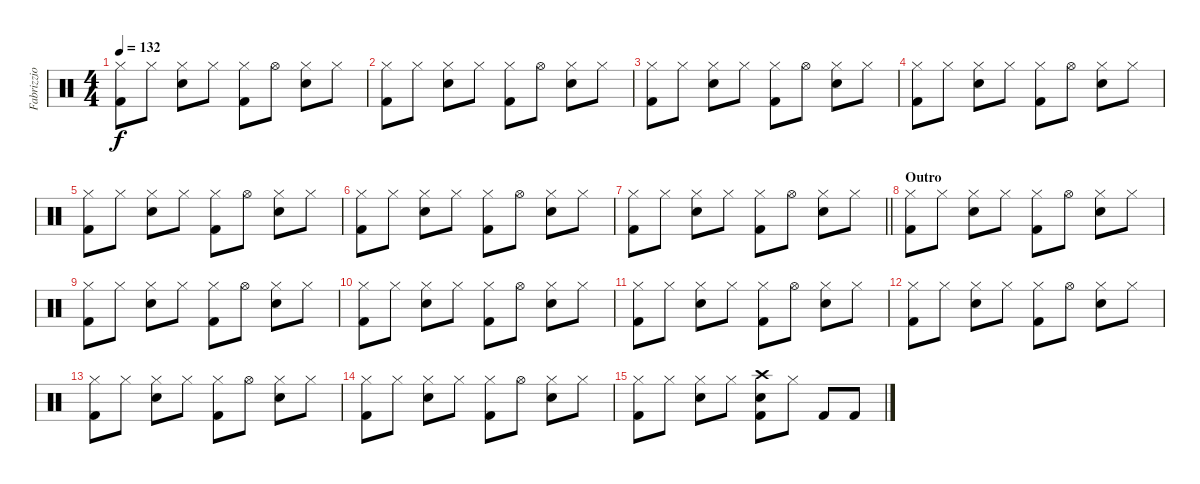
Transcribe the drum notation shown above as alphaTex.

\track ("Fabrizzio" "Fabrizzio") {instrument percussion}
\staff {score}
\articulation defaults
\ts (4 4)
\tempo 132
\clef neutral
\ks c
("Hi-Hat (closed)" "Kick (hit) 2").8{dy f} "Hi-Hat (closed)".8 ("Hi-Hat (closed)" "Snare (hit) 2").8 "Hi-Hat (closed)".8 ("Hi-Hat (closed)" "Kick (hit) 2").8 "Hi-Hat (open)".8 ("Hi-Hat (closed)" "Snare (hit) 2").8 "Hi-Hat (closed)".8 |
("Hi-Hat (closed)" "Kick (hit) 2").8 "Hi-Hat (closed)".8 ("Hi-Hat (closed)" "Snare (hit) 2").8 "Hi-Hat (closed)".8 ("Hi-Hat (closed)" "Kick (hit) 2").8 "Hi-Hat (open)".8 ("Hi-Hat (closed)" "Snare (hit) 2").8 "Hi-Hat (closed)".8 |
("Hi-Hat (closed)" "Kick (hit) 2").8 "Hi-Hat (closed)".8 ("Hi-Hat (closed)" "Snare (hit) 2").8 "Hi-Hat (closed)".8 ("Hi-Hat (closed)" "Kick (hit) 2").8 "Hi-Hat (open)".8 ("Hi-Hat (closed)" "Snare (hit) 2").8 "Hi-Hat (closed)".8 |
("Hi-Hat (closed)" "Kick (hit) 2").8 "Hi-Hat (closed)".8 ("Hi-Hat (closed)" "Snare (hit) 2").8 "Hi-Hat (closed)".8 ("Hi-Hat (closed)" "Kick (hit) 2").8 "Hi-Hat (open)".8 ("Hi-Hat (closed)" "Snare (hit) 2").8 "Hi-Hat (closed)".8 |
("Hi-Hat (closed)" "Kick (hit) 2").8 "Hi-Hat (closed)".8 ("Hi-Hat (closed)" "Snare (hit) 2").8 "Hi-Hat (closed)".8 ("Hi-Hat (closed)" "Kick (hit) 2").8 "Hi-Hat (open)".8 ("Hi-Hat (closed)" "Snare (hit) 2").8 "Hi-Hat (closed)".8 |
("Hi-Hat (closed)" "Kick (hit) 2").8 "Hi-Hat (closed)".8 ("Hi-Hat (closed)" "Snare (hit) 2").8 "Hi-Hat (closed)".8 ("Hi-Hat (closed)" "Kick (hit) 2").8 "Hi-Hat (open)".8 ("Hi-Hat (closed)" "Snare (hit) 2").8 "Hi-Hat (closed)".8 |
\barLineRight lightlight
("Hi-Hat (closed)" "Kick (hit) 2").8 "Hi-Hat (closed)".8 ("Hi-Hat (closed)" "Snare (hit) 2").8 "Hi-Hat (closed)".8 ("Hi-Hat (closed)" "Kick (hit) 2").8 "Hi-Hat (open)".8 ("Hi-Hat (closed)" "Snare (hit) 2").8 "Hi-Hat (closed)".8 |
\section ("" "Outro")
("Hi-Hat (closed)" "Kick (hit) 2").8 "Hi-Hat (closed)".8 ("Hi-Hat (closed)" "Snare (hit) 2").8 "Hi-Hat (closed)".8 ("Hi-Hat (closed)" "Kick (hit) 2").8 "Hi-Hat (open)".8 ("Hi-Hat (closed)" "Snare (hit) 2").8 "Hi-Hat (closed)".8 |
("Hi-Hat (closed)" "Kick (hit) 2").8 "Hi-Hat (closed)".8 ("Hi-Hat (closed)" "Snare (hit) 2").8 "Hi-Hat (closed)".8 ("Hi-Hat (closed)" "Kick (hit) 2").8 "Hi-Hat (open)".8 ("Hi-Hat (closed)" "Snare (hit) 2").8 "Hi-Hat (closed)".8 |
("Hi-Hat (closed)" "Kick (hit) 2").8 "Hi-Hat (closed)".8 ("Hi-Hat (closed)" "Snare (hit) 2").8 "Hi-Hat (closed)".8 ("Hi-Hat (closed)" "Kick (hit) 2").8 "Hi-Hat (open)".8 ("Hi-Hat (closed)" "Snare (hit) 2").8 "Hi-Hat (closed)".8 |
("Hi-Hat (closed)" "Kick (hit) 2").8 "Hi-Hat (closed)".8 ("Hi-Hat (closed)" "Snare (hit) 2").8 "Hi-Hat (closed)".8 ("Hi-Hat (closed)" "Kick (hit) 2").8 "Hi-Hat (open)".8 ("Hi-Hat (closed)" "Snare (hit) 2").8 "Hi-Hat (closed)".8 |
("Hi-Hat (closed)" "Kick (hit) 2").8 "Hi-Hat (closed)".8 ("Hi-Hat (closed)" "Snare (hit) 2").8 "Hi-Hat (closed)".8 ("Hi-Hat (closed)" "Kick (hit) 2").8 "Hi-Hat (open)".8 ("Hi-Hat (closed)" "Snare (hit) 2").8 "Hi-Hat (closed)".8 |
("Hi-Hat (closed)" "Kick (hit) 2").8 "Hi-Hat (closed)".8 ("Hi-Hat (closed)" "Snare (hit) 2").8 "Hi-Hat (closed)".8 ("Hi-Hat (closed)" "Kick (hit) 2").8 "Hi-Hat (open)".8 ("Hi-Hat (closed)" "Snare (hit) 2").8 "Hi-Hat (closed)".8 |
("Hi-Hat (closed)" "Kick (hit) 2").8 "Hi-Hat (closed)".8 ("Hi-Hat (closed)" "Snare (hit) 2").8 "Hi-Hat (closed)".8 ("Hi-Hat (closed)" "Kick (hit) 2").8 "Hi-Hat (open)".8 ("Hi-Hat (closed)" "Snare (hit) 2").8 "Hi-Hat (closed)".8 |
("Hi-Hat (closed)" "Kick (hit) 2").8 "Hi-Hat (closed)".8 ("Hi-Hat (closed)" "Snare (hit) 2").8 "Hi-Hat (closed)".8 ("Crash high (hit)" "Snare (hit) 2" "Kick (hit) 2").8 "Hi-Hat (closed)".8 "Kick (hit) 2".8 "Kick (hit) 2".8
